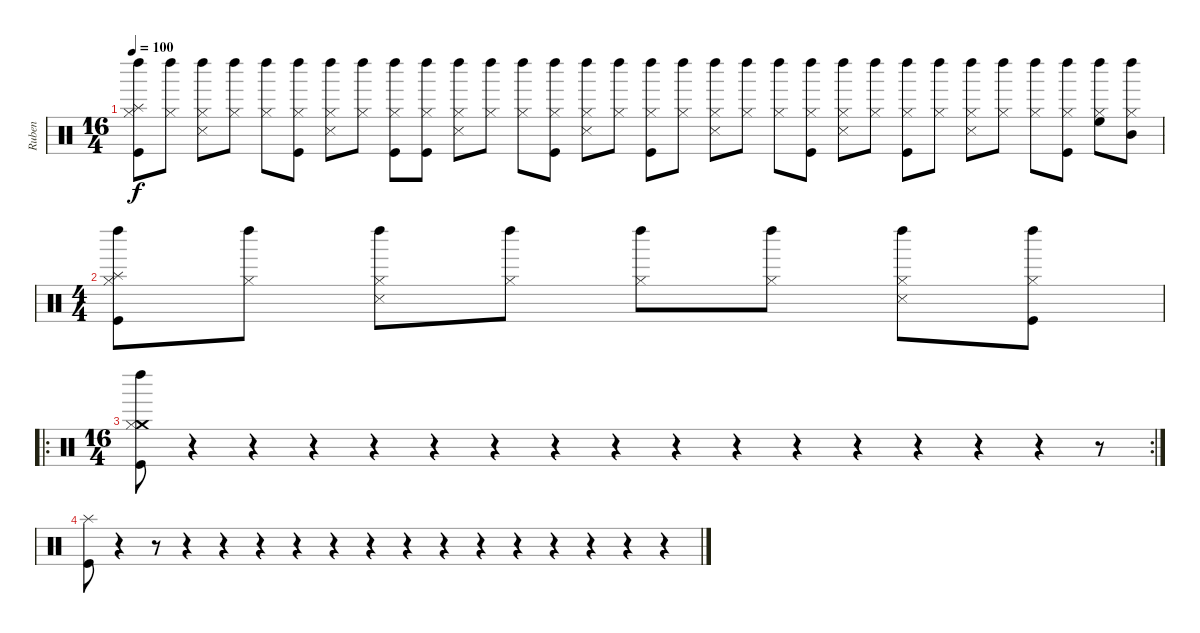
\track ("Ruben" "Ruben") {instrument percussion}
\staff {score}
\articulation defaults
\ts (16 4)
\tempo 100
\clef neutral
\ks c
("Left Maraca (hit)" "Hi-Hat (closed)" "Splash (hit)" "Kick (hit)").8{dy f} ("Left Maraca (hit)" "Hi-Hat (closed)").8 ("Left Maraca (hit)" "Hi-Hat (closed)" "Snare (side stick) 3").8 ("Left Maraca (hit)" "Hi-Hat (closed)").8 ("Left Maraca (hit)" "Hi-Hat (closed)").8 ("Left Maraca (hit)" "Hi-Hat (closed)" "Kick (hit)").8 ("Left Maraca (hit)" "Hi-Hat (closed)" "Snare (side stick) 3").8 ("Left Maraca (hit)" "Hi-Hat (closed)").8 ("Left Maraca (hit)" "Hi-Hat (closed)" "Kick (hit)").8 ("Left Maraca (hit)" "Hi-Hat (closed)" "Kick (hit)").8 ("Left Maraca (hit)" "Hi-Hat (closed)" "Snare (side stick) 3").8 ("Left Maraca (hit)" "Hi-Hat (closed)").8 ("Left Maraca (hit)" "Hi-Hat (closed)").8 ("Left Maraca (hit)" "Hi-Hat (closed)" "Kick (hit)").8 ("Left Maraca (hit)" "Hi-Hat (closed)" "Snare (side stick) 3").8 ("Left Maraca (hit)" "Hi-Hat (closed)").8 ("Left Maraca (hit)" "Hi-Hat (closed)" "Kick (hit)").8 ("Left Maraca (hit)" "Hi-Hat (closed)").8 ("Left Maraca (hit)" "Hi-Hat (closed)" "Snare (side stick) 3").8 ("Left Maraca (hit)" "Hi-Hat (closed)").8 ("Left Maraca (hit)" "Hi-Hat (closed)").8 ("Left Maraca (hit)" "Hi-Hat (closed)" "Kick (hit)").8 ("Left Maraca (hit)" "Hi-Hat (closed)" "Snare (side stick) 3").8 ("Left Maraca (hit)" "Hi-Hat (closed)").8 ("Left Maraca (hit)" "Hi-Hat (closed)" "Kick (hit)").8 ("Left Maraca (hit)" "Hi-Hat (closed)").8 ("Left Maraca (hit)" "Hi-Hat (closed)" "Snare (side stick) 3").8 ("Left Maraca (hit)" "Hi-Hat (closed)").8 ("Left Maraca (hit)" "Hi-Hat (closed)").8 ("Left Maraca (hit)" "Hi-Hat (closed)" "Kick (hit)").8 ("Left Maraca (hit)" "Hi-Hat (closed)" "High Floor Tom (hit)").8 ("Left Maraca (hit)" "Hi-Hat (closed)" "Mid Tom (hit)").8 |
\ts (4 4)
("Left Maraca (hit)" "Hi-Hat (closed)" "Splash (hit)" "Kick (hit)").8 ("Left Maraca (hit)" "Hi-Hat (closed)").8 ("Left Maraca (hit)" "Hi-Hat (closed)" "Snare (side stick) 3").8 ("Left Maraca (hit)" "Hi-Hat (closed)").8 ("Left Maraca (hit)" "Hi-Hat (closed)").8 ("Left Maraca (hit)" "Hi-Hat (closed)").8 ("Left Maraca (hit)" "Hi-Hat (closed)" "Snare (side stick) 3").8 ("Left Maraca (hit)" "Hi-Hat (closed)" "Kick (hit)").8 |
\ro
\rc 2
\ts (16 4)
("Crash medium (hit)" "Left Maraca (hit)" "Hi-Hat (closed)" "Kick (hit)").8 r.4 r.4 r.4 r.4 r.4 r.4 r.4 r.4 r.4 r.4 r.4 r.4 r.4 r.4 r.4 r.8 |
("Splash (hit)" "Kick (hit)").8 r.4 r.8 r.4 r.4 r.4 r.4 r.4 r.4 r.4 r.4 r.4 r.4 r.4 r.4 r.4 r.4
